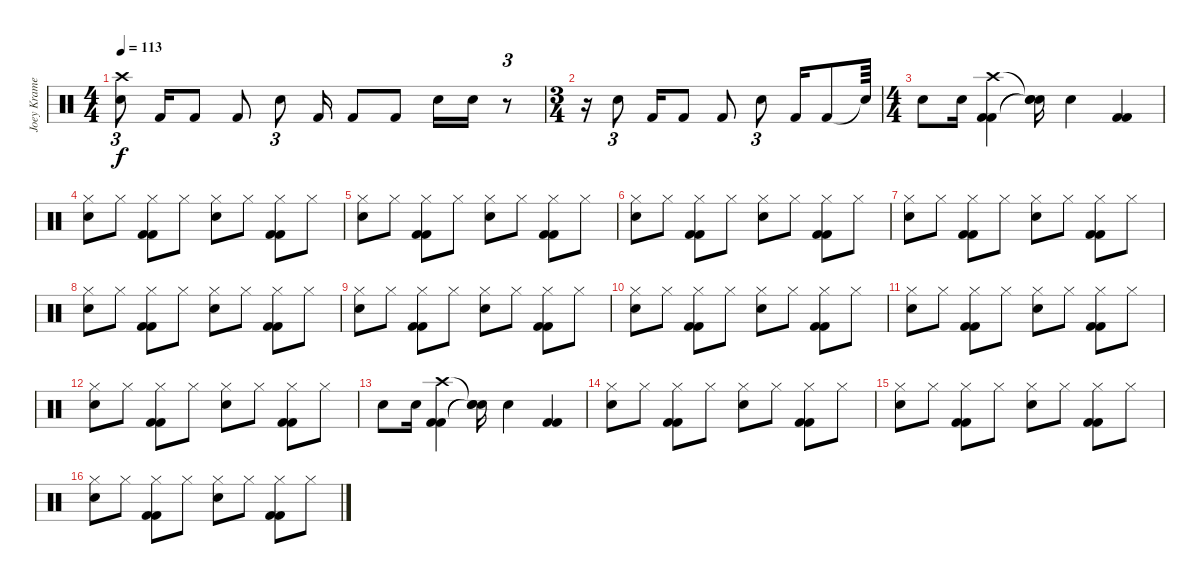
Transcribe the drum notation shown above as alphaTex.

\track ("Joey Kramer" "Joey Krame") {instrument percussion}
\staff {score}
\articulation defaults
\ts (4 4)
\tempo 113
\clef neutral
\ks c
("Electric Snare (hit)" "Crash high (hit)").8{tu (3 2) dy f} "Kick (hit) 2".16 "Kick (hit) 2".8 "Kick (hit) 2".8 "Electric Snare (hit)".8{tu (3 2)} "Kick (hit) 2".16 "Kick (hit) 2".8 "Kick (hit) 2".8 "Electric Snare (hit)".16 "Electric Snare (hit)".16 r.8{tu (3 2)} |
\ts (3 4)
r.16 "Electric Snare (hit)".8{tu (3 2)} "Kick (hit) 2".16 "Kick (hit) 2".8 "Kick (hit) 2".8 "Electric Snare (hit)".8{tu (3 2)} "Kick (hit) 2".16 "Kick (hit) 2".8 "Snare (hit)"{t}.64 |
\ts (4 4)
"Electric Snare (hit)".8 "Electric Snare (hit)".16 ("Kick (hit) 2" "Crash high (hit)" "Kick (hit) 2").4 ("Snare (hit)"{t} "Snare (hit)"{t} "Snare (hit)"{t}).16 "Electric Snare (hit)".4 ("Kick (hit) 2" "Kick (hit) 2").4 |
("Electric Snare (hit)" "Hi-Hat (closed)").8 "Hi-Hat (closed)".8 ("Kick (hit) 2" "Kick (hit) 2" "Hi-Hat (closed)").8 "Hi-Hat (closed)".8 ("Electric Snare (hit)" "Hi-Hat (closed)").8 "Hi-Hat (closed)".8 ("Kick (hit) 2" "Kick (hit) 2" "Hi-Hat (closed)").8 "Hi-Hat (closed)".8 |
("Electric Snare (hit)" "Hi-Hat (closed)").8 "Hi-Hat (closed)".8 ("Kick (hit) 2" "Kick (hit) 2" "Hi-Hat (closed)").8 "Hi-Hat (closed)".8 ("Electric Snare (hit)" "Hi-Hat (closed)").8 "Hi-Hat (closed)".8 ("Kick (hit) 2" "Kick (hit) 2" "Hi-Hat (closed)").8 "Hi-Hat (closed)".8 |
("Electric Snare (hit)" "Hi-Hat (closed)").8 "Hi-Hat (closed)".8 ("Kick (hit) 2" "Kick (hit) 2" "Hi-Hat (closed)").8 "Hi-Hat (closed)".8 ("Electric Snare (hit)" "Hi-Hat (closed)").8 "Hi-Hat (closed)".8 ("Kick (hit) 2" "Kick (hit) 2" "Hi-Hat (closed)").8 "Hi-Hat (closed)".8 |
("Electric Snare (hit)" "Hi-Hat (closed)").8 "Hi-Hat (closed)".8 ("Kick (hit) 2" "Kick (hit) 2" "Hi-Hat (closed)").8 "Hi-Hat (closed)".8 ("Electric Snare (hit)" "Hi-Hat (closed)").8 "Hi-Hat (closed)".8 ("Kick (hit) 2" "Kick (hit) 2" "Hi-Hat (closed)").8 "Hi-Hat (closed)".8 |
("Electric Snare (hit)" "Hi-Hat (closed)").8 "Hi-Hat (closed)".8 ("Kick (hit) 2" "Kick (hit) 2" "Hi-Hat (closed)").8 "Hi-Hat (closed)".8 ("Electric Snare (hit)" "Hi-Hat (closed)").8 "Hi-Hat (closed)".8 ("Kick (hit) 2" "Kick (hit) 2" "Hi-Hat (closed)").8 "Hi-Hat (closed)".8 |
("Electric Snare (hit)" "Hi-Hat (closed)").8 "Hi-Hat (closed)".8 ("Kick (hit) 2" "Kick (hit) 2" "Hi-Hat (closed)").8 "Hi-Hat (closed)".8 ("Electric Snare (hit)" "Hi-Hat (closed)").8 "Hi-Hat (closed)".8 ("Kick (hit) 2" "Kick (hit) 2" "Hi-Hat (closed)").8 "Hi-Hat (closed)".8 |
("Electric Snare (hit)" "Hi-Hat (closed)").8 "Hi-Hat (closed)".8 ("Kick (hit) 2" "Kick (hit) 2" "Hi-Hat (closed)").8 "Hi-Hat (closed)".8 ("Electric Snare (hit)" "Hi-Hat (closed)").8 "Hi-Hat (closed)".8 ("Kick (hit) 2" "Kick (hit) 2" "Hi-Hat (closed)").8 "Hi-Hat (closed)".8 |
("Electric Snare (hit)" "Hi-Hat (closed)").8 "Hi-Hat (closed)".8 ("Kick (hit) 2" "Kick (hit) 2" "Hi-Hat (closed)").8 "Hi-Hat (closed)".8 ("Electric Snare (hit)" "Hi-Hat (closed)").8 "Hi-Hat (closed)".8 ("Kick (hit) 2" "Kick (hit) 2" "Hi-Hat (closed)").8 "Hi-Hat (closed)".8 |
("Electric Snare (hit)" "Hi-Hat (closed)").8 "Hi-Hat (closed)".8 ("Kick (hit) 2" "Kick (hit) 2" "Hi-Hat (closed)").8 "Hi-Hat (closed)".8 ("Electric Snare (hit)" "Hi-Hat (closed)").8 "Hi-Hat (closed)".8 ("Kick (hit) 2" "Kick (hit) 2" "Hi-Hat (closed)").8 "Hi-Hat (closed)".8 |
"Electric Snare (hit)".8 "Electric Snare (hit)".16 ("Kick (hit) 2" "Crash high (hit)" "Kick (hit) 2").4 ("Snare (hit)"{t} "Snare (hit)"{t} "Snare (hit)"{t}).16 "Electric Snare (hit)".4 ("Kick (hit) 2" "Kick (hit) 2").4 |
("Electric Snare (hit)" "Hi-Hat (closed)").8 "Hi-Hat (closed)".8 ("Kick (hit) 2" "Kick (hit) 2" "Hi-Hat (closed)").8 "Hi-Hat (closed)".8 ("Electric Snare (hit)" "Hi-Hat (closed)").8 "Hi-Hat (closed)".8 ("Kick (hit) 2" "Kick (hit) 2" "Hi-Hat (closed)").8 "Hi-Hat (closed)".8 |
("Electric Snare (hit)" "Hi-Hat (closed)").8 "Hi-Hat (closed)".8 ("Kick (hit) 2" "Kick (hit) 2" "Hi-Hat (closed)").8 "Hi-Hat (closed)".8 ("Electric Snare (hit)" "Hi-Hat (closed)").8 "Hi-Hat (closed)".8 ("Kick (hit) 2" "Kick (hit) 2" "Hi-Hat (closed)").8 "Hi-Hat (closed)".8 |
("Electric Snare (hit)" "Hi-Hat (closed)").8 "Hi-Hat (closed)".8 ("Kick (hit) 2" "Kick (hit) 2" "Hi-Hat (closed)").8 "Hi-Hat (closed)".8 ("Electric Snare (hit)" "Hi-Hat (closed)").8 "Hi-Hat (closed)".8 ("Kick (hit) 2" "Kick (hit) 2" "Hi-Hat (closed)").8 "Hi-Hat (closed)".8
